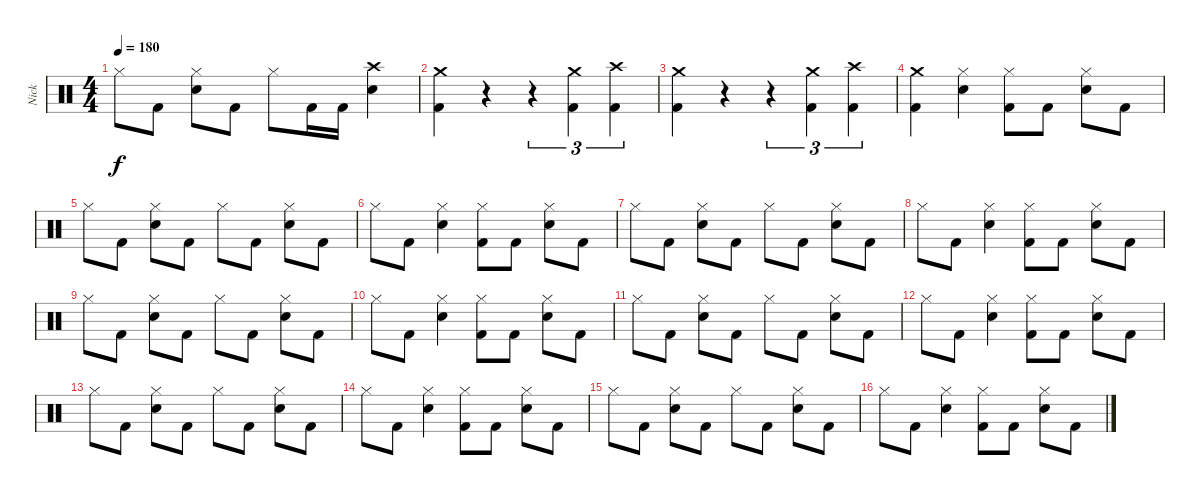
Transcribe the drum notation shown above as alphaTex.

\track ("Nick" "Nick") {instrument percussion}
\staff {score}
\articulation defaults
\ts (4 4)
\tempo 180
\clef neutral
\ks c "Hi-Hat (closed)".8{dy f} "Kick (hit) 2".8
("Hi-Hat (closed)" "Electric Snare (hit)").8 "Kick (hit) 2".8 "Hi-Hat (closed)".8 "Kick (hit) 2".16 "Kick (hit) 2".16 ("Crash high (hit)" "Electric Snare (hit)").4 |
("Crash medium (hit)" "Kick (hit) 2").4 r.4 r.4{tu (3 2)} ("Crash medium (hit)" "Kick (hit) 2").4{tu (3 2)} ("Crash high (hit)" "Kick (hit) 2").4{tu (3 2)} |
("Crash medium (hit)" "Kick (hit) 2").4 r.4 r.4{tu (3 2)} ("Crash medium (hit)" "Kick (hit) 2").4{tu (3 2)} ("Crash high (hit)" "Kick (hit) 2").4{tu (3 2)} |
("Crash medium (hit)" "Kick (hit) 2").4 ("Hi-Hat (closed)" "Electric Snare (hit)").4 ("Hi-Hat (closed)" "Kick (hit) 2").8 "Kick (hit) 2".8 ("Hi-Hat (closed)" "Electric Snare (hit)").8 "Kick (hit) 2".8 |
"Hi-Hat (closed)".8 "Kick (hit) 2".8 ("Hi-Hat (closed)" "Electric Snare (hit)").8 "Kick (hit) 2".8 "Hi-Hat (closed)".8 "Kick (hit) 2".8 ("Hi-Hat (closed)" "Electric Snare (hit)").8 "Kick (hit) 2".8 |
"Hi-Hat (closed)".8 "Kick (hit) 2".8 ("Hi-Hat (closed)" "Electric Snare (hit)").4 ("Hi-Hat (closed)" "Kick (hit) 2").8 "Kick (hit) 2".8 ("Hi-Hat (closed)" "Electric Snare (hit)").8 "Kick (hit) 2".8 |
"Hi-Hat (closed)".8 "Kick (hit) 2".8 ("Hi-Hat (closed)" "Electric Snare (hit)").8 "Kick (hit) 2".8 "Hi-Hat (closed)".8 "Kick (hit) 2".8 ("Hi-Hat (closed)" "Electric Snare (hit)").8 "Kick (hit) 2".8 |
"Hi-Hat (closed)".8 "Kick (hit) 2".8 ("Hi-Hat (closed)" "Electric Snare (hit)").4 ("Hi-Hat (closed)" "Kick (hit) 2").8 "Kick (hit) 2".8 ("Hi-Hat (closed)" "Electric Snare (hit)").8 "Kick (hit) 2".8 |
"Hi-Hat (closed)".8 "Kick (hit) 2".8 ("Hi-Hat (closed)" "Electric Snare (hit)").8 "Kick (hit) 2".8 "Hi-Hat (closed)".8 "Kick (hit) 2".8 ("Hi-Hat (closed)" "Electric Snare (hit)").8 "Kick (hit) 2".8 |
"Hi-Hat (closed)".8 "Kick (hit) 2".8 ("Hi-Hat (closed)" "Electric Snare (hit)").4 ("Hi-Hat (closed)" "Kick (hit) 2").8 "Kick (hit) 2".8 ("Hi-Hat (closed)" "Electric Snare (hit)").8 "Kick (hit) 2".8 |
"Hi-Hat (closed)".8 "Kick (hit) 2".8 ("Hi-Hat (closed)" "Electric Snare (hit)").8 "Kick (hit) 2".8 "Hi-Hat (closed)".8 "Kick (hit) 2".8 ("Hi-Hat (closed)" "Electric Snare (hit)").8 "Kick (hit) 2".8 |
"Hi-Hat (closed)".8 "Kick (hit) 2".8 ("Hi-Hat (closed)" "Electric Snare (hit)").4 ("Hi-Hat (closed)" "Kick (hit) 2").8 "Kick (hit) 2".8 ("Hi-Hat (closed)" "Electric Snare (hit)").8 "Kick (hit) 2".8 |
"Hi-Hat (closed)".8 "Kick (hit) 2".8 ("Hi-Hat (closed)" "Electric Snare (hit)").8 "Kick (hit) 2".8 "Hi-Hat (closed)".8 "Kick (hit) 2".8 ("Hi-Hat (closed)" "Electric Snare (hit)").8 "Kick (hit) 2".8 |
"Hi-Hat (closed)".8 "Kick (hit) 2".8 ("Hi-Hat (closed)" "Electric Snare (hit)").4 ("Hi-Hat (closed)" "Kick (hit) 2").8 "Kick (hit) 2".8 ("Hi-Hat (closed)" "Electric Snare (hit)").8 "Kick (hit) 2".8 |
"Hi-Hat (closed)".8 "Kick (hit) 2".8 ("Hi-Hat (closed)" "Electric Snare (hit)").8 "Kick (hit) 2".8 "Hi-Hat (closed)".8 "Kick (hit) 2".8 ("Hi-Hat (closed)" "Electric Snare (hit)").8 "Kick (hit) 2".8 |
"Hi-Hat (closed)".8 "Kick (hit) 2".8 ("Hi-Hat (closed)" "Electric Snare (hit)").4 ("Hi-Hat (closed)" "Kick (hit) 2").8 "Kick (hit) 2".8 ("Hi-Hat (closed)" "Electric Snare (hit)").8 "Kick (hit) 2".8
